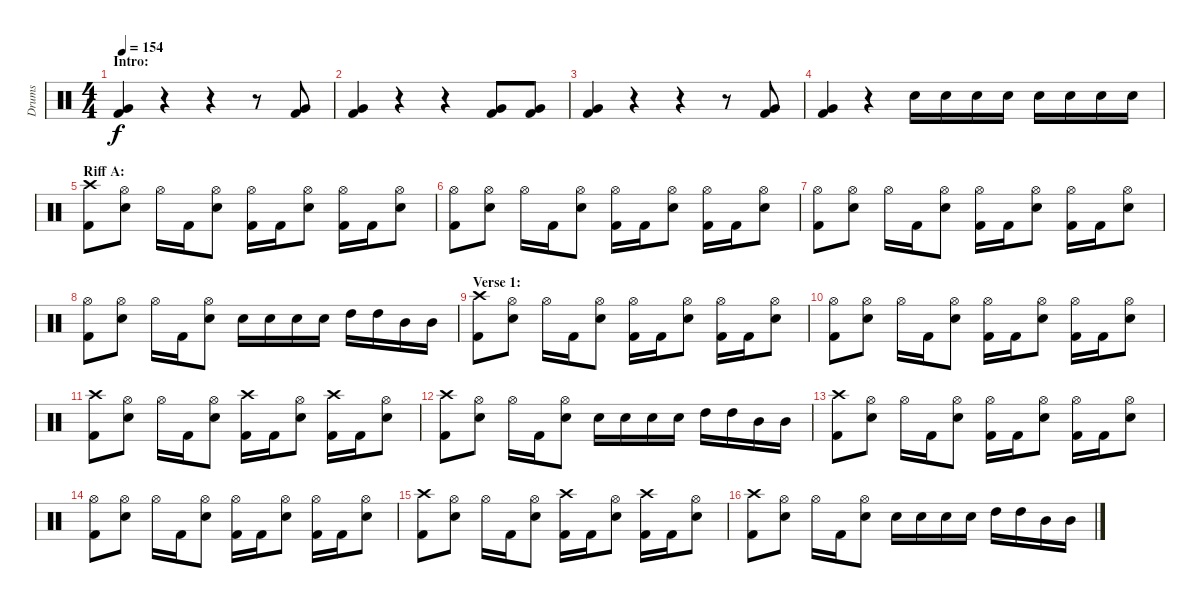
\track ("Drums" "Drums") {instrument percussion}
\staff {score}
\articulation defaults
\ts (4 4)
\section ("" "Intro:")
\tempo 154
\clef neutral
\ks c
("Very Low Tom (hit)" "Kick (hit) 2").4{dy f} r.4 r.4 r.8 ("Very Low Tom (hit)" "Kick (hit) 2").8 |
("Very Low Tom (hit)" "Kick (hit) 2").4 r.4 r.4 ("Very Low Tom (hit)" "Kick (hit) 2").8 ("Very Low Tom (hit)" "Kick (hit) 2").8 |
("Very Low Tom (hit)" "Kick (hit) 2").4 r.4 r.4 r.8 ("Very Low Tom (hit)" "Kick (hit) 2").8 |
("Very Low Tom (hit)" "Kick (hit) 2").4 r.4 "Snare (hit) 2".16 "Snare (hit) 2".16 "Snare (hit) 2".16 "Snare (hit) 2".16 "Snare (hit) 2".16 "Snare (hit) 2".16 "Snare (hit) 2".16 "Snare (hit) 2".16 |
\section ("" "Riff A:")
("Crash high (hit)" "Kick (hit) 2").8 ("Hi-Hat (open)" "Snare (hit) 2").8 "Hi-Hat (open)".16 "Kick (hit) 2".16 ("Hi-Hat (open)" "Snare (hit) 2").8 ("Hi-Hat (open)" "Kick (hit) 2").16 "Kick (hit) 2".16 ("Hi-Hat (open)" "Snare (hit) 2").8 ("Hi-Hat (open)" "Kick (hit) 2").16 "Kick (hit) 2".16 ("Hi-Hat (open)" "Snare (hit) 2").8 |
("Hi-Hat (open)" "Kick (hit) 2").8 ("Hi-Hat (open)" "Snare (hit) 2").8 "Hi-Hat (open)".16 "Kick (hit) 2".16 ("Hi-Hat (open)" "Snare (hit) 2").8 ("Hi-Hat (open)" "Kick (hit) 2").16 "Kick (hit) 2".16 ("Hi-Hat (open)" "Snare (hit) 2").8 ("Hi-Hat (open)" "Kick (hit) 2").16 "Kick (hit) 2".16 ("Hi-Hat (open)" "Snare (hit) 2").8 |
("Hi-Hat (open)" "Kick (hit) 2").8 ("Hi-Hat (open)" "Snare (hit) 2").8 "Hi-Hat (open)".16 "Kick (hit) 2".16 ("Hi-Hat (open)" "Snare (hit) 2").8 ("Hi-Hat (open)" "Kick (hit) 2").16 "Kick (hit) 2".16 ("Hi-Hat (open)" "Snare (hit) 2").8 ("Hi-Hat (open)" "Kick (hit) 2").16 "Kick (hit) 2".16 ("Hi-Hat (open)" "Snare (hit) 2").8 |
("Hi-Hat (open)" "Kick (hit) 2").8 ("Hi-Hat (open)" "Snare (hit) 2").8 "Hi-Hat (open)".16 "Kick (hit) 2".16 ("Hi-Hat (open)" "Snare (hit) 2").8 "Snare (hit) 2".16 "Snare (hit) 2".16 "Snare (hit) 2".16 "Snare (hit) 2".16 "High Tom (hit)".16 "High Tom (hit)".16 "Mid Tom (hit)".16 "Mid Tom (hit)".16 |
\section ("" "Verse 1:")
("Crash high (hit)" "Kick (hit) 2").8 ("Hi-Hat (open)" "Snare (hit) 2").8 "Hi-Hat (open)".16 "Kick (hit) 2".16 ("Hi-Hat (open)" "Snare (hit) 2").8 ("Hi-Hat (open)" "Kick (hit) 2").16 "Kick (hit) 2".16 ("Hi-Hat (open)" "Snare (hit) 2").8 ("Hi-Hat (open)" "Kick (hit) 2").16 "Kick (hit) 2".16 ("Hi-Hat (open)" "Snare (hit) 2").8 |
("Hi-Hat (open)" "Kick (hit) 2").8 ("Hi-Hat (open)" "Snare (hit) 2").8 "Hi-Hat (open)".16 "Kick (hit) 2".16 ("Hi-Hat (open)" "Snare (hit) 2").8 ("Hi-Hat (open)" "Kick (hit) 2").16 "Kick (hit) 2".16 ("Hi-Hat (open)" "Snare (hit) 2").8 ("Hi-Hat (open)" "Kick (hit) 2").16 "Kick (hit) 2".16 ("Hi-Hat (open)" "Snare (hit) 2").8 |
("Crash high (hit)" "Kick (hit) 2").8 ("Hi-Hat (open)" "Snare (hit) 2").8 "Hi-Hat (open)".16 "Kick (hit) 2".16 ("Hi-Hat (open)" "Snare (hit) 2").8 ("Crash high (hit)" "Kick (hit) 2").16 "Kick (hit) 2".16 ("Hi-Hat (open)" "Snare (hit) 2").8 ("Crash high (hit)" "Kick (hit) 2").16 "Kick (hit) 2".16 ("Hi-Hat (open)" "Snare (hit) 2").8 |
("Crash high (hit)" "Kick (hit) 2").8 ("Hi-Hat (open)" "Snare (hit) 2").8 "Hi-Hat (open)".16 "Kick (hit) 2".16 ("Hi-Hat (open)" "Snare (hit) 2").8 "Snare (hit) 2".16 "Snare (hit) 2".16 "Snare (hit) 2".16 "Snare (hit) 2".16 "High Tom (hit)".16 "High Tom (hit)".16 "Mid Tom (hit)".16 "Mid Tom (hit)".16 |
("Crash high (hit)" "Kick (hit) 2").8 ("Hi-Hat (open)" "Snare (hit) 2").8 "Hi-Hat (open)".16 "Kick (hit) 2".16 ("Hi-Hat (open)" "Snare (hit) 2").8 ("Hi-Hat (open)" "Kick (hit) 2").16 "Kick (hit) 2".16 ("Hi-Hat (open)" "Snare (hit) 2").8 ("Hi-Hat (open)" "Kick (hit) 2").16 "Kick (hit) 2".16 ("Hi-Hat (open)" "Snare (hit) 2").8 |
("Hi-Hat (open)" "Kick (hit) 2").8 ("Hi-Hat (open)" "Snare (hit) 2").8 "Hi-Hat (open)".16 "Kick (hit) 2".16 ("Hi-Hat (open)" "Snare (hit) 2").8 ("Hi-Hat (open)" "Kick (hit) 2").16 "Kick (hit) 2".16 ("Hi-Hat (open)" "Snare (hit) 2").8 ("Hi-Hat (open)" "Kick (hit) 2").16 "Kick (hit) 2".16 ("Hi-Hat (open)" "Snare (hit) 2").8 |
("Crash high (hit)" "Kick (hit) 2").8 ("Hi-Hat (open)" "Snare (hit) 2").8 "Hi-Hat (open)".16 "Kick (hit) 2".16 ("Hi-Hat (open)" "Snare (hit) 2").8 ("Crash high (hit)" "Kick (hit) 2").16 "Kick (hit) 2".16 ("Hi-Hat (open)" "Snare (hit) 2").8 ("Crash high (hit)" "Kick (hit) 2").16 "Kick (hit) 2".16 ("Hi-Hat (open)" "Snare (hit) 2").8 |
("Crash high (hit)" "Kick (hit) 2").8 ("Hi-Hat (open)" "Snare (hit) 2").8 "Hi-Hat (open)".16 "Kick (hit) 2".16 ("Hi-Hat (open)" "Snare (hit) 2").8 "Snare (hit) 2".16 "Snare (hit) 2".16 "Snare (hit) 2".16 "Snare (hit) 2".16 "High Tom (hit)".16 "High Tom (hit)".16 "Mid Tom (hit)".16 "Mid Tom (hit)".16
